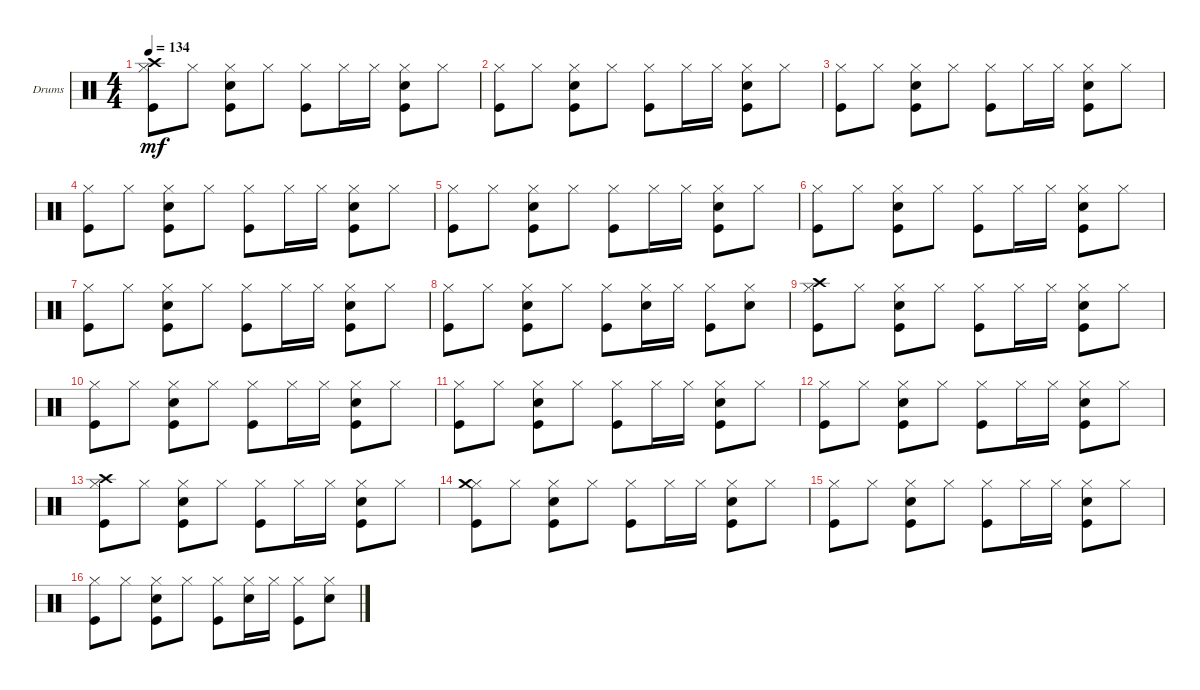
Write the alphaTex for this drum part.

\bracketExtendMode groupsimilarinstruments
\firstSystemTrackNameOrientation horizontal
\otherSystemsTrackNameOrientation horizontal
\track ("DRUMSET" "Drums") {instrument percussion}
\staff {score}
\articulation defaults
\ts (4 4)
\tempo 134
\clef neutral
\ks c
("Kick (hit)" "Hi-Hat (closed)" "Crash high (hit)").8{dy mf} "Hi-Hat (closed)".8 ("Kick (hit)" "Snare (hit) 2" "Hi-Hat (closed)").8 "Hi-Hat (closed)".8 ("Kick (hit)" "Hi-Hat (closed)").8 "Hi-Hat (closed)".16 "Hi-Hat (closed)".16 ("Kick (hit)" "Snare (hit) 2" "Hi-Hat (closed)").8 "Hi-Hat (closed)".8 |
("Kick (hit)" "Hi-Hat (closed)").8 "Hi-Hat (closed)".8 ("Kick (hit)" "Snare (hit) 2" "Hi-Hat (closed)").8 "Hi-Hat (closed)".8 ("Kick (hit)" "Hi-Hat (closed)").8 "Hi-Hat (closed)".16 "Hi-Hat (closed)".16 ("Kick (hit)" "Snare (hit) 2" "Hi-Hat (closed)").8 "Hi-Hat (closed)".8 |
("Kick (hit)" "Hi-Hat (closed)").8 "Hi-Hat (closed)".8 ("Kick (hit)" "Snare (hit) 2" "Hi-Hat (closed)").8 "Hi-Hat (closed)".8 ("Kick (hit)" "Hi-Hat (closed)").8 "Hi-Hat (closed)".16 "Hi-Hat (closed)".16 ("Kick (hit)" "Snare (hit) 2" "Hi-Hat (closed)").8 "Hi-Hat (closed)".8 |
("Kick (hit)" "Hi-Hat (closed)").8 "Hi-Hat (closed)".8 ("Kick (hit)" "Snare (hit) 2" "Hi-Hat (closed)").8 "Hi-Hat (closed)".8 ("Kick (hit)" "Hi-Hat (closed)").8 "Hi-Hat (closed)".16 "Hi-Hat (closed)".16 ("Kick (hit)" "Snare (hit) 2" "Hi-Hat (closed)").8 "Hi-Hat (closed)".8 |
("Kick (hit)" "Hi-Hat (closed)").8 "Hi-Hat (closed)".8 ("Kick (hit)" "Snare (hit) 2" "Hi-Hat (closed)").8 "Hi-Hat (closed)".8 ("Kick (hit)" "Hi-Hat (closed)").8 "Hi-Hat (closed)".16 "Hi-Hat (closed)".16 ("Kick (hit)" "Snare (hit) 2" "Hi-Hat (closed)").8 "Hi-Hat (closed)".8 |
("Kick (hit)" "Hi-Hat (closed)").8 "Hi-Hat (closed)".8 ("Kick (hit)" "Snare (hit) 2" "Hi-Hat (closed)").8 "Hi-Hat (closed)".8 ("Kick (hit)" "Hi-Hat (closed)").8 "Hi-Hat (closed)".16 "Hi-Hat (closed)".16 ("Kick (hit)" "Snare (hit) 2" "Hi-Hat (closed)").8 "Hi-Hat (closed)".8 |
("Kick (hit)" "Hi-Hat (closed)").8 "Hi-Hat (closed)".8 ("Kick (hit)" "Snare (hit) 2" "Hi-Hat (closed)").8 "Hi-Hat (closed)".8 ("Kick (hit)" "Hi-Hat (closed)").8 "Hi-Hat (closed)".16 "Hi-Hat (closed)".16 ("Kick (hit)" "Snare (hit) 2" "Hi-Hat (closed)").8 "Hi-Hat (closed)".8 |
("Kick (hit)" "Hi-Hat (closed)").8 "Hi-Hat (closed)".8 ("Kick (hit)" "Snare (hit) 2" "Hi-Hat (closed)").8 "Hi-Hat (closed)".8 ("Kick (hit)" "Hi-Hat (closed)").8 ("Snare (hit) 2" "Hi-Hat (closed)").16 "Hi-Hat (closed)".16 ("Kick (hit)" "Hi-Hat (closed)").8 ("Snare (hit) 2" "Hi-Hat (closed)").8 |
("Kick (hit)" "Hi-Hat (closed)" "Crash high (hit)").8 "Hi-Hat (closed)".8 ("Kick (hit)" "Snare (hit) 2" "Hi-Hat (closed)").8 "Hi-Hat (closed)".8 ("Kick (hit)" "Hi-Hat (closed)").8 "Hi-Hat (closed)".16 "Hi-Hat (closed)".16 ("Kick (hit)" "Snare (hit) 2" "Hi-Hat (closed)").8 "Hi-Hat (closed)".8 |
("Kick (hit)" "Hi-Hat (closed)").8 "Hi-Hat (closed)".8 ("Kick (hit)" "Snare (hit) 2" "Hi-Hat (closed)").8 "Hi-Hat (closed)".8 ("Kick (hit)" "Hi-Hat (closed)").8 "Hi-Hat (closed)".16 "Hi-Hat (closed)".16 ("Kick (hit)" "Snare (hit) 2" "Hi-Hat (closed)").8 "Hi-Hat (closed)".8 |
("Kick (hit)" "Hi-Hat (closed)").8 "Hi-Hat (closed)".8 ("Kick (hit)" "Snare (hit) 2" "Hi-Hat (closed)").8 "Hi-Hat (closed)".8 ("Kick (hit)" "Hi-Hat (closed)").8 "Hi-Hat (closed)".16 "Hi-Hat (closed)".16 ("Kick (hit)" "Snare (hit) 2" "Hi-Hat (closed)").8 "Hi-Hat (closed)".8 |
("Kick (hit)" "Hi-Hat (closed)").8 "Hi-Hat (closed)".8 ("Kick (hit)" "Snare (hit) 2" "Hi-Hat (closed)").8 "Hi-Hat (closed)".8 ("Kick (hit)" "Hi-Hat (closed)").8 "Hi-Hat (closed)".16 "Hi-Hat (closed)".16 ("Kick (hit)" "Snare (hit) 2" "Hi-Hat (closed)").8 "Hi-Hat (closed)".8 |
("Kick (hit)" "Hi-Hat (closed)" "Crash high (hit)").8 "Hi-Hat (closed)".8 ("Kick (hit)" "Snare (hit) 2" "Hi-Hat (closed)").8 "Hi-Hat (closed)".8 ("Kick (hit)" "Hi-Hat (closed)").8 "Hi-Hat (closed)".16 "Hi-Hat (closed)".16 ("Kick (hit)" "Snare (hit) 2" "Hi-Hat (closed)").8 "Hi-Hat (closed)".8 |
("Kick (hit)" "Hi-Hat (closed)" "Crash medium (hit)").8 "Hi-Hat (closed)".8 ("Kick (hit)" "Snare (hit) 2" "Hi-Hat (closed)").8 "Hi-Hat (closed)".8 ("Kick (hit)" "Hi-Hat (closed)").8 "Hi-Hat (closed)".16 "Hi-Hat (closed)".16 ("Kick (hit)" "Snare (hit) 2" "Hi-Hat (closed)").8 "Hi-Hat (closed)".8 |
("Kick (hit)" "Hi-Hat (closed)").8 "Hi-Hat (closed)".8 ("Kick (hit)" "Snare (hit) 2" "Hi-Hat (closed)").8 "Hi-Hat (closed)".8 ("Kick (hit)" "Hi-Hat (closed)").8 "Hi-Hat (closed)".16 "Hi-Hat (closed)".16 ("Kick (hit)" "Snare (hit) 2" "Hi-Hat (closed)").8 "Hi-Hat (closed)".8 |
("Kick (hit)" "Hi-Hat (closed)").8 "Hi-Hat (closed)".8 ("Kick (hit)" "Snare (hit) 2" "Hi-Hat (closed)").8 "Hi-Hat (closed)".8 ("Kick (hit)" "Hi-Hat (closed)").8 ("Snare (hit) 2" "Hi-Hat (closed)").16 "Hi-Hat (closed)".16 ("Kick (hit)" "Hi-Hat (closed)").8 ("Snare (hit) 2" "Hi-Hat (closed)").8
